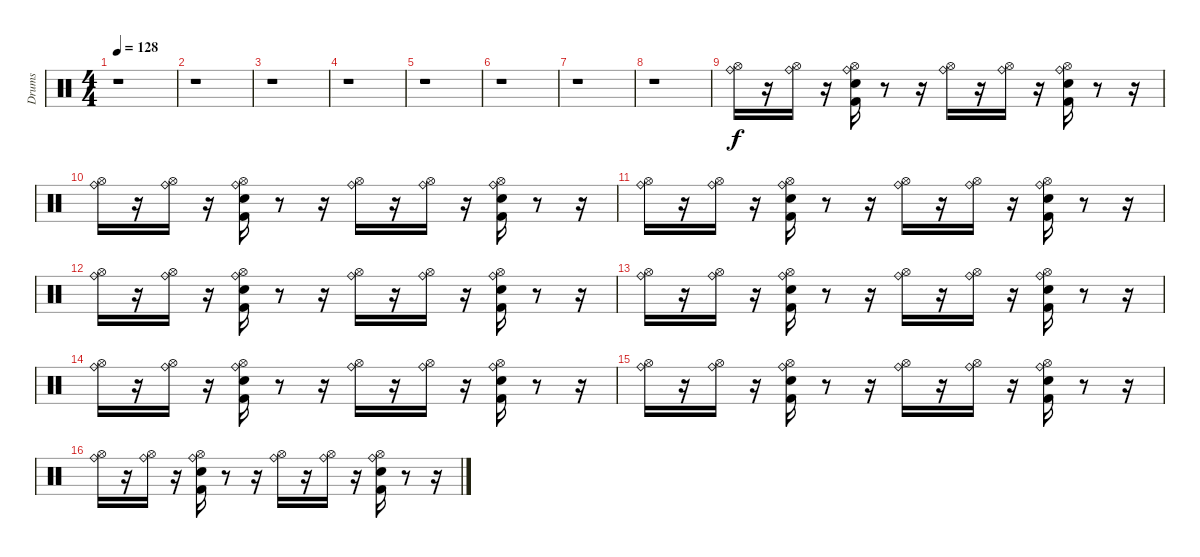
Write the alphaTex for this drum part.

\track ("Drums" "Drums") {instrument percussion}
\staff {score}
\articulation defaults
\ts (4 4)
\tempo 128
\clef neutral
\ks c
r.1{dy f} |
r.1 |
r.1 |
r.1 |
r.1 |
r.1 |
r.1 |
r.1 |
("Ride (bell)" "Hi-Hat (open)").16 r.16 ("Hi-Hat (open)" "Ride (bell)").16 r.16 ("Kick (hit) 2" "Snare (hit) 2" "Ride (bell)" "Hi-Hat (open)").16 r.8 r.16 ("Hi-Hat (open)" "Ride (bell)").16 r.16 ("Hi-Hat (open)" "Ride (bell)").16 r.16 ("Kick (hit) 2" "Snare (hit) 2" "Hi-Hat (open)" "Ride (bell)").16 r.8 r.16 |
("Ride (bell)" "Hi-Hat (open)").16 r.16 ("Hi-Hat (open)" "Ride (bell)").16 r.16 ("Kick (hit) 2" "Snare (hit) 2" "Ride (bell)" "Hi-Hat (open)").16 r.8 r.16 ("Hi-Hat (open)" "Ride (bell)").16 r.16 ("Hi-Hat (open)" "Ride (bell)").16 r.16 ("Kick (hit) 2" "Snare (hit) 2" "Hi-Hat (open)" "Ride (bell)").16 r.8 r.16 |
("Ride (bell)" "Hi-Hat (open)").16 r.16 ("Hi-Hat (open)" "Ride (bell)").16 r.16 ("Kick (hit) 2" "Snare (hit) 2" "Ride (bell)" "Hi-Hat (open)").16 r.8 r.16 ("Hi-Hat (open)" "Ride (bell)").16 r.16 ("Hi-Hat (open)" "Ride (bell)").16 r.16 ("Kick (hit) 2" "Snare (hit) 2" "Hi-Hat (open)" "Ride (bell)").16 r.8 r.16 |
("Ride (bell)" "Hi-Hat (open)").16 r.16 ("Hi-Hat (open)" "Ride (bell)").16 r.16 ("Kick (hit) 2" "Snare (hit) 2" "Ride (bell)" "Hi-Hat (open)").16 r.8 r.16 ("Hi-Hat (open)" "Ride (bell)").16 r.16 ("Hi-Hat (open)" "Ride (bell)").16 r.16 ("Kick (hit) 2" "Snare (hit) 2" "Hi-Hat (open)" "Ride (bell)").16 r.8 r.16 |
("Ride (bell)" "Hi-Hat (open)").16 r.16 ("Hi-Hat (open)" "Ride (bell)").16 r.16 ("Kick (hit) 2" "Snare (hit) 2" "Ride (bell)" "Hi-Hat (open)").16 r.8 r.16 ("Hi-Hat (open)" "Ride (bell)").16 r.16 ("Hi-Hat (open)" "Ride (bell)").16 r.16 ("Kick (hit) 2" "Snare (hit) 2" "Hi-Hat (open)" "Ride (bell)").16 r.8 r.16 |
("Ride (bell)" "Hi-Hat (open)").16 r.16 ("Hi-Hat (open)" "Ride (bell)").16 r.16 ("Kick (hit) 2" "Snare (hit) 2" "Ride (bell)" "Hi-Hat (open)").16 r.8 r.16 ("Hi-Hat (open)" "Ride (bell)").16 r.16 ("Hi-Hat (open)" "Ride (bell)").16 r.16 ("Kick (hit) 2" "Snare (hit) 2" "Hi-Hat (open)" "Ride (bell)").16 r.8 r.16 |
("Ride (bell)" "Hi-Hat (open)").16 r.16 ("Hi-Hat (open)" "Ride (bell)").16 r.16 ("Kick (hit) 2" "Snare (hit) 2" "Ride (bell)" "Hi-Hat (open)").16 r.8 r.16 ("Hi-Hat (open)" "Ride (bell)").16 r.16 ("Hi-Hat (open)" "Ride (bell)").16 r.16 ("Kick (hit) 2" "Snare (hit) 2" "Hi-Hat (open)" "Ride (bell)").16 r.8 r.16 |
("Ride (bell)" "Hi-Hat (open)").16 r.16 ("Hi-Hat (open)" "Ride (bell)").16 r.16 ("Kick (hit) 2" "Snare (hit) 2" "Ride (bell)" "Hi-Hat (open)").16 r.8 r.16 ("Hi-Hat (open)" "Ride (bell)").16 r.16 ("Hi-Hat (open)" "Ride (bell)").16 r.16 ("Kick (hit) 2" "Snare (hit) 2" "Hi-Hat (open)" "Ride (bell)").16 r.8 r.16
